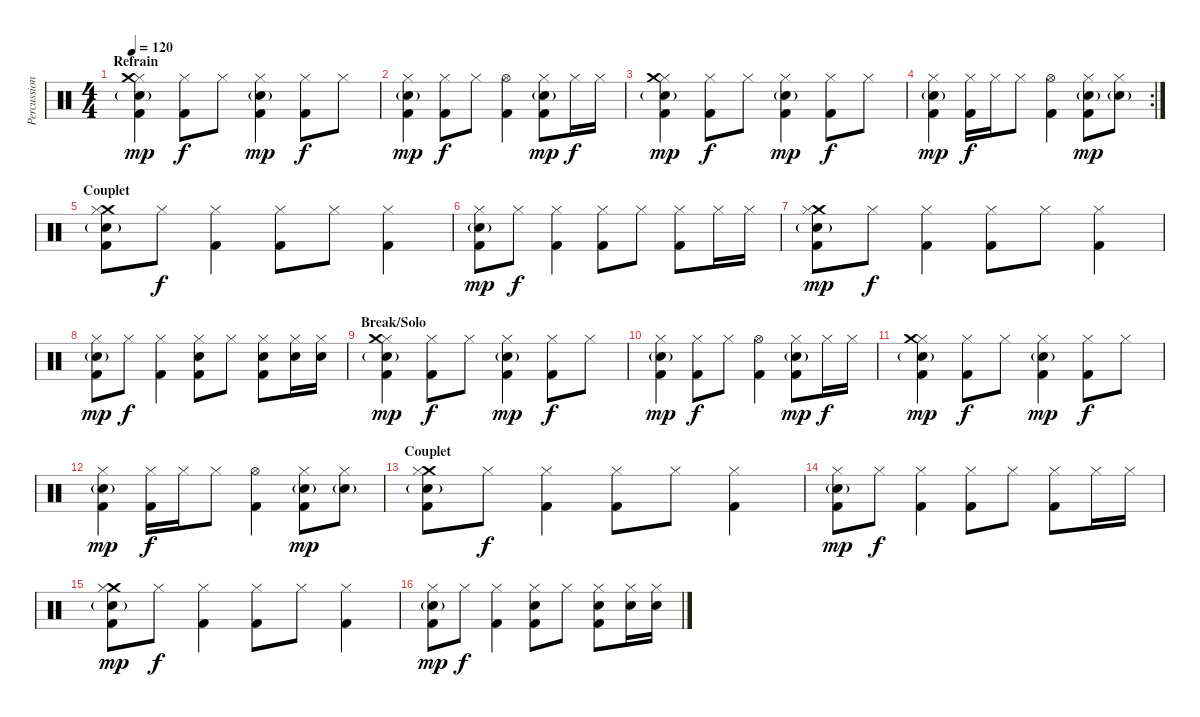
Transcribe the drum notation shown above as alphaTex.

\track ("Percussions" "Percussion") {instrument percussion}
\staff {score}
\articulation defaults
\ts (4 4)
\section ("" "Refrain")
\tempo 120
\clef neutral
\ks c
("Hi-Hat (closed)" "Electric Snare (hit)"{g} "Kick (hit) 2" "Crash medium (hit)").4{dy mp} ("Hi-Hat (closed)" "Kick (hit) 2").8{dy f} "Hi-Hat (closed)".8 ("Hi-Hat (closed)" "Electric Snare (hit)"{g} "Kick (hit) 2").4{dy mp} ("Hi-Hat (closed)" "Kick (hit) 2").8{dy f} "Hi-Hat (closed)".8 |
("Hi-Hat (closed)" "Electric Snare (hit)"{g} "Kick (hit) 2").4{dy mp} ("Hi-Hat (closed)" "Kick (hit) 2").8{dy f} "Hi-Hat (closed)".8 ("Hi-Hat (open)" "Kick (hit) 2").4 ("Hi-Hat (closed)" "Electric Snare (hit)"{g} "Kick (hit) 2").8{dy mp} "Hi-Hat (closed)".16{dy f} "Hi-Hat (closed)".16 |
("Hi-Hat (closed)" "Electric Snare (hit)"{g} "Kick (hit) 2" "Crash medium (hit)").4{dy mp} ("Hi-Hat (closed)" "Kick (hit) 2").8{dy f} "Hi-Hat (closed)".8 ("Hi-Hat (closed)" "Electric Snare (hit)"{g} "Kick (hit) 2").4{dy mp} ("Hi-Hat (closed)" "Kick (hit) 2").8{dy f} "Hi-Hat (closed)".8 |
\rc 2
("Hi-Hat (closed)" "Electric Snare (hit)"{g} "Kick (hit) 2").4{dy mp} ("Hi-Hat (closed)" "Kick (hit) 2").16{dy f} "Hi-Hat (closed)".16 "Hi-Hat (closed)".8 ("Hi-Hat (open)" "Kick (hit) 2").4 ("Hi-Hat (closed)" "Electric Snare (hit)"{g} "Kick (hit) 2").8{dy mp} ("Hi-Hat (closed)" "Electric Snare (hit)"{g}).8 |
\section ("" "Couplet")
("Crash medium (hit)" "Kick (hit) 2" "Electric Snare (hit)"{g} "Hi-Hat (closed)").8 "Hi-Hat (closed)".8{dy f} ("Kick (hit) 2" "Hi-Hat (closed)").4 ("Kick (hit) 2" "Hi-Hat (closed)").8 "Hi-Hat (closed)".8 ("Kick (hit) 2" "Hi-Hat (closed)").4 |
("Kick (hit) 2" "Electric Snare (hit)"{g} "Hi-Hat (closed)").8{dy mp} "Hi-Hat (closed)".8{dy f} ("Kick (hit) 2" "Hi-Hat (closed)").4 ("Kick (hit) 2" "Hi-Hat (closed)").8 "Hi-Hat (closed)".8 ("Kick (hit) 2" "Hi-Hat (closed)").8 "Hi-Hat (closed)".16 "Hi-Hat (closed)".16 |
("Crash medium (hit)" "Kick (hit) 2" "Electric Snare (hit)"{g} "Hi-Hat (closed)").8{dy mp} "Hi-Hat (closed)".8{dy f} ("Kick (hit) 2" "Hi-Hat (closed)").4 ("Kick (hit) 2" "Hi-Hat (closed)").8 "Hi-Hat (closed)".8 ("Kick (hit) 2" "Hi-Hat (closed)").4 |
("Kick (hit) 2" "Electric Snare (hit)"{g} "Hi-Hat (closed)").8{dy mp} "Hi-Hat (closed)".8{dy f} ("Kick (hit) 2" "Hi-Hat (closed)").4 ("Kick (hit) 2" "Electric Snare (hit)" "Hi-Hat (closed)").8 "Hi-Hat (closed)".8 ("Kick (hit) 2" "Electric Snare (hit)" "Hi-Hat (closed)").8 ("Electric Snare (hit)" "Hi-Hat (closed)").16 ("Electric Snare (hit)" "Hi-Hat (closed)").16 |
\section ("" "Break/Solo")
("Hi-Hat (closed)" "Electric Snare (hit)"{g} "Kick (hit) 2" "Crash medium (hit)").4{dy mp} ("Hi-Hat (closed)" "Kick (hit) 2").8{dy f} "Hi-Hat (closed)".8 ("Hi-Hat (closed)" "Electric Snare (hit)"{g} "Kick (hit) 2").4{dy mp} ("Hi-Hat (closed)" "Kick (hit) 2").8{dy f} "Hi-Hat (closed)".8 |
("Hi-Hat (closed)" "Electric Snare (hit)"{g} "Kick (hit) 2").4{dy mp} ("Hi-Hat (closed)" "Kick (hit) 2").8{dy f} "Hi-Hat (closed)".8 ("Hi-Hat (open)" "Kick (hit) 2").4 ("Hi-Hat (closed)" "Electric Snare (hit)"{g} "Kick (hit) 2").8{dy mp} "Hi-Hat (closed)".16{dy f} "Hi-Hat (closed)".16 |
("Hi-Hat (closed)" "Electric Snare (hit)"{g} "Kick (hit) 2" "Crash medium (hit)").4{dy mp} ("Hi-Hat (closed)" "Kick (hit) 2").8{dy f} "Hi-Hat (closed)".8 ("Hi-Hat (closed)" "Electric Snare (hit)"{g} "Kick (hit) 2").4{dy mp} ("Hi-Hat (closed)" "Kick (hit) 2").8{dy f} "Hi-Hat (closed)".8 |
("Hi-Hat (closed)" "Electric Snare (hit)"{g} "Kick (hit) 2").4{dy mp} ("Hi-Hat (closed)" "Kick (hit) 2").16{dy f} "Hi-Hat (closed)".16 "Hi-Hat (closed)".8 ("Hi-Hat (open)" "Kick (hit) 2").4 ("Hi-Hat (closed)" "Electric Snare (hit)"{g} "Kick (hit) 2").8{dy mp} ("Hi-Hat (closed)" "Electric Snare (hit)"{g}).8 |
\section ("" "Couplet")
("Crash medium (hit)" "Kick (hit) 2" "Electric Snare (hit)"{g} "Hi-Hat (closed)").8 "Hi-Hat (closed)".8{dy f} ("Kick (hit) 2" "Hi-Hat (closed)").4 ("Kick (hit) 2" "Hi-Hat (closed)").8 "Hi-Hat (closed)".8 ("Kick (hit) 2" "Hi-Hat (closed)").4 |
("Kick (hit) 2" "Electric Snare (hit)"{g} "Hi-Hat (closed)").8{dy mp} "Hi-Hat (closed)".8{dy f} ("Kick (hit) 2" "Hi-Hat (closed)").4 ("Kick (hit) 2" "Hi-Hat (closed)").8 "Hi-Hat (closed)".8 ("Kick (hit) 2" "Hi-Hat (closed)").8 "Hi-Hat (closed)".16 "Hi-Hat (closed)".16 |
("Crash medium (hit)" "Kick (hit) 2" "Electric Snare (hit)"{g} "Hi-Hat (closed)").8{dy mp} "Hi-Hat (closed)".8{dy f} ("Kick (hit) 2" "Hi-Hat (closed)").4 ("Kick (hit) 2" "Hi-Hat (closed)").8 "Hi-Hat (closed)".8 ("Kick (hit) 2" "Hi-Hat (closed)").4 |
("Kick (hit) 2" "Electric Snare (hit)"{g} "Hi-Hat (closed)").8{dy mp} "Hi-Hat (closed)".8{dy f} ("Kick (hit) 2" "Hi-Hat (closed)").4 ("Kick (hit) 2" "Electric Snare (hit)" "Hi-Hat (closed)").8 "Hi-Hat (closed)".8 ("Kick (hit) 2" "Electric Snare (hit)" "Hi-Hat (closed)").8 ("Electric Snare (hit)" "Hi-Hat (closed)").16 ("Electric Snare (hit)" "Hi-Hat (closed)").16
